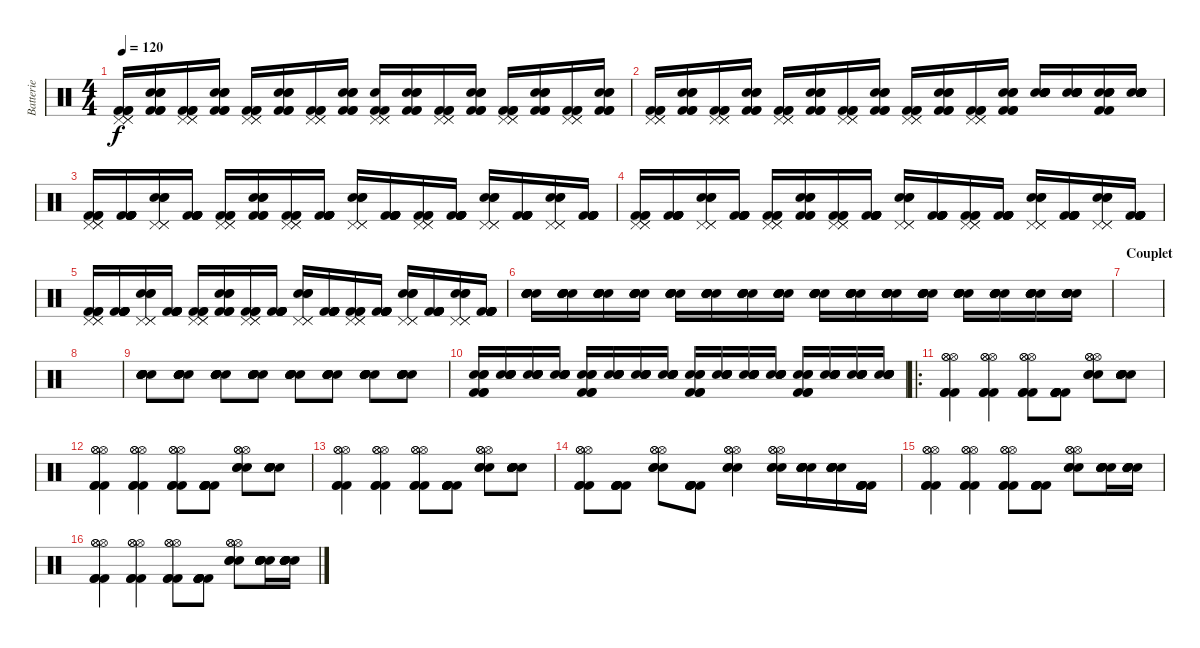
\track ("Batterie" "Batterie") {instrument percussion}
\staff {score}
\articulation defaults
\ts (4 4)
\tempo 120
\clef neutral
\ks c
("Pedal Hi-Hat (hit)" "Pedal Hi-Hat (hit)" "Pedal Hi-Hat (hit)" "Kick (hit) 2" "Kick (hit) 2" "Kick (hit) 2").16{dy f} ("Kick (hit) 2" "Kick (hit) 2" "Kick (hit) 2" "Snare (hit) 2" "Snare (hit) 2" "Snare (hit) 2").16 ("Pedal Hi-Hat (hit)" "Pedal Hi-Hat (hit)" "Pedal Hi-Hat (hit)" "Kick (hit) 2" "Kick (hit) 2" "Kick (hit) 2").16 ("Kick (hit) 2" "Kick (hit) 2" "Kick (hit) 2" "Snare (hit) 2" "Snare (hit) 2" "Snare (hit) 2").16 ("Pedal Hi-Hat (hit)" "Pedal Hi-Hat (hit)" "Pedal Hi-Hat (hit)" "Kick (hit) 2" "Kick (hit) 2" "Kick (hit) 2").16 ("Kick (hit) 2" "Kick (hit) 2" "Kick (hit) 2" "Snare (hit) 2" "Snare (hit) 2" "Snare (hit) 2").16 ("Pedal Hi-Hat (hit)" "Pedal Hi-Hat (hit)" "Pedal Hi-Hat (hit)" "Kick (hit) 2" "Kick (hit) 2" "Kick (hit) 2").16 ("Kick (hit) 2" "Kick (hit) 2" "Kick (hit) 2" "Snare (hit) 2" "Snare (hit) 2" "Snare (hit) 2").16 ("Pedal Hi-Hat (hit)" "Pedal Hi-Hat (hit)" "Pedal Hi-Hat (hit)" "Snare (hit)" "Kick (hit) 2" "Kick (hit) 2").16 ("Kick (hit) 2" "Kick (hit) 2" "Kick (hit) 2" "Snare (hit) 2" "Snare (hit) 2" "Snare (hit) 2").16 ("Pedal Hi-Hat (hit)" "Pedal Hi-Hat (hit)" "Pedal Hi-Hat (hit)" "Kick (hit) 2" "Kick (hit) 2" "Kick (hit) 2").16 ("Kick (hit) 2" "Kick (hit) 2" "Kick (hit) 2" "Snare (hit) 2" "Snare (hit) 2" "Snare (hit) 2").16 ("Pedal Hi-Hat (hit)" "Pedal Hi-Hat (hit)" "Pedal Hi-Hat (hit)" "Kick (hit) 2" "Kick (hit) 2" "Kick (hit) 2").16 ("Kick (hit) 2" "Kick (hit) 2" "Kick (hit) 2" "Snare (hit) 2" "Snare (hit) 2" "Snare (hit) 2").16 ("Pedal Hi-Hat (hit)" "Pedal Hi-Hat (hit)" "Pedal Hi-Hat (hit)" "Kick (hit) 2" "Kick (hit) 2" "Kick (hit) 2").16 ("Kick (hit) 2" "Kick (hit) 2" "Kick (hit) 2" "Snare (hit) 2" "Snare (hit) 2" "Snare (hit) 2").16 |
("Pedal Hi-Hat (hit)" "Pedal Hi-Hat (hit)" "Pedal Hi-Hat (hit)" "Kick (hit) 2" "Kick (hit) 2" "Kick (hit) 2").16 ("Kick (hit) 2" "Kick (hit) 2" "Kick (hit) 2" "Snare (hit) 2" "Snare (hit) 2" "Snare (hit) 2").16 ("Pedal Hi-Hat (hit)" "Pedal Hi-Hat (hit)" "Pedal Hi-Hat (hit)" "Kick (hit) 2" "Kick (hit) 2" "Kick (hit) 2").16 ("Kick (hit) 2" "Kick (hit) 2" "Kick (hit) 2" "Snare (hit) 2" "Snare (hit) 2" "Snare (hit) 2").16 ("Pedal Hi-Hat (hit)" "Pedal Hi-Hat (hit)" "Pedal Hi-Hat (hit)" "Kick (hit) 2" "Kick (hit) 2" "Kick (hit) 2").16 ("Kick (hit) 2" "Kick (hit) 2" "Kick (hit) 2" "Snare (hit) 2" "Snare (hit) 2" "Snare (hit) 2").16 ("Pedal Hi-Hat (hit)" "Pedal Hi-Hat (hit)" "Pedal Hi-Hat (hit)" "Kick (hit) 2" "Kick (hit) 2" "Kick (hit) 2").16 ("Kick (hit) 2" "Kick (hit) 2" "Kick (hit) 2" "Snare (hit) 2" "Snare (hit) 2" "Snare (hit) 2").16 ("Pedal Hi-Hat (hit)" "Pedal Hi-Hat (hit)" "Pedal Hi-Hat (hit)" "Kick (hit) 2" "Kick (hit) 2" "Kick (hit) 2").16 ("Kick (hit) 2" "Kick (hit) 2" "Kick (hit) 2" "Snare (hit) 2" "Snare (hit) 2" "Snare (hit) 2").16 ("Pedal Hi-Hat (hit)" "Pedal Hi-Hat (hit)" "Pedal Hi-Hat (hit)" "Kick (hit) 2" "Kick (hit) 2" "Kick (hit) 2").16 ("Kick (hit) 2" "Kick (hit) 2" "Kick (hit) 2" "Snare (hit) 2" "Snare (hit) 2" "Snare (hit) 2").16 ("Snare (hit) 2" "Snare (hit) 2" "Snare (hit) 2" "Snare (hit) 2" "Snare (hit) 2" "Snare (hit) 2").16 ("Snare (hit) 2" "Snare (hit) 2" "Snare (hit) 2" "Snare (hit) 2" "Snare (hit) 2" "Snare (hit) 2").16 ("Snare (hit) 2" "Snare (hit) 2" "Snare (hit) 2" "Snare (hit) 2" "Kick (hit) 2" "Kick (hit) 2").16 ("Snare (hit) 2" "Snare (hit) 2" "Snare (hit) 2" "Snare (hit) 2" "Snare (hit) 2" "Snare (hit) 2").16 |
("Pedal Hi-Hat (hit)" "Pedal Hi-Hat (hit)" "Pedal Hi-Hat (hit)" "Kick (hit) 2" "Kick (hit) 2" "Kick (hit) 2").16 ("Kick (hit) 2" "Kick (hit) 2" "Kick (hit) 2" "Kick (hit) 2" "Kick (hit) 2" "Kick (hit) 2").16 ("Pedal Hi-Hat (hit)" "Pedal Hi-Hat (hit)" "Pedal Hi-Hat (hit)" "Snare (hit) 2" "Snare (hit) 2" "Snare (hit) 2").16 ("Kick (hit) 2" "Kick (hit) 2" "Kick (hit) 2" "Kick (hit) 2" "Kick (hit) 2" "Kick (hit) 2").16 ("Pedal Hi-Hat (hit)" "Pedal Hi-Hat (hit)" "Pedal Hi-Hat (hit)" "Kick (hit) 2" "Kick (hit) 2" "Kick (hit) 2").16 ("Kick (hit) 2" "Kick (hit) 2" "Kick (hit) 2" "Snare (hit) 2" "Snare (hit) 2" "Snare (hit) 2").16 ("Pedal Hi-Hat (hit)" "Pedal Hi-Hat (hit)" "Pedal Hi-Hat (hit)" "Kick (hit) 2" "Kick (hit) 2" "Kick (hit) 2").16 ("Kick (hit) 2" "Kick (hit) 2" "Kick (hit) 2" "Kick (hit) 2" "Kick (hit) 2" "Kick (hit) 2").16 ("Pedal Hi-Hat (hit)" "Pedal Hi-Hat (hit)" "Pedal Hi-Hat (hit)" "Snare (hit) 2" "Snare (hit) 2" "Snare (hit) 2").16 ("Kick (hit) 2" "Kick (hit) 2" "Kick (hit) 2" "Kick (hit) 2" "Kick (hit) 2" "Kick (hit) 2").16 ("Pedal Hi-Hat (hit)" "Pedal Hi-Hat (hit)" "Pedal Hi-Hat (hit)" "Kick (hit) 2" "Kick (hit) 2" "Kick (hit) 2").16 ("Kick (hit) 2" "Kick (hit) 2" "Kick (hit) 2" "Kick (hit) 2" "Kick (hit) 2" "Kick (hit) 2").16 ("Pedal Hi-Hat (hit)" "Pedal Hi-Hat (hit)" "Pedal Hi-Hat (hit)" "Snare (hit) 2" "Snare (hit) 2" "Snare (hit) 2").16 ("Kick (hit) 2" "Kick (hit) 2" "Kick (hit) 2" "Kick (hit) 2" "Kick (hit) 2" "Kick (hit) 2").16 ("Pedal Hi-Hat (hit)" "Pedal Hi-Hat (hit)" "Pedal Hi-Hat (hit)" "Snare (hit) 2" "Snare (hit) 2" "Snare (hit) 2").16 ("Kick (hit) 2" "Kick (hit) 2" "Kick (hit) 2" "Kick (hit) 2" "Kick (hit) 2" "Kick (hit) 2").16 |
("Pedal Hi-Hat (hit)" "Pedal Hi-Hat (hit)" "Pedal Hi-Hat (hit)" "Kick (hit) 2" "Kick (hit) 2" "Kick (hit) 2").16 ("Kick (hit) 2" "Kick (hit) 2" "Kick (hit) 2" "Kick (hit) 2" "Kick (hit) 2" "Kick (hit) 2").16 ("Pedal Hi-Hat (hit)" "Pedal Hi-Hat (hit)" "Pedal Hi-Hat (hit)" "Snare (hit) 2" "Snare (hit) 2" "Snare (hit) 2").16 ("Kick (hit) 2" "Kick (hit) 2" "Kick (hit) 2" "Kick (hit) 2" "Kick (hit) 2" "Kick (hit) 2").16 ("Pedal Hi-Hat (hit)" "Pedal Hi-Hat (hit)" "Pedal Hi-Hat (hit)" "Kick (hit) 2" "Kick (hit) 2" "Kick (hit) 2").16 ("Kick (hit) 2" "Kick (hit) 2" "Kick (hit) 2" "Snare (hit) 2" "Snare (hit) 2" "Snare (hit) 2").16 ("Pedal Hi-Hat (hit)" "Pedal Hi-Hat (hit)" "Pedal Hi-Hat (hit)" "Kick (hit) 2" "Kick (hit) 2" "Kick (hit) 2").16 ("Kick (hit) 2" "Kick (hit) 2" "Kick (hit) 2" "Kick (hit) 2" "Kick (hit) 2" "Kick (hit) 2").16 ("Pedal Hi-Hat (hit)" "Pedal Hi-Hat (hit)" "Pedal Hi-Hat (hit)" "Snare (hit) 2" "Snare (hit) 2" "Snare (hit) 2").16 ("Kick (hit) 2" "Kick (hit) 2" "Kick (hit) 2" "Kick (hit) 2" "Kick (hit) 2" "Kick (hit) 2").16 ("Pedal Hi-Hat (hit)" "Pedal Hi-Hat (hit)" "Pedal Hi-Hat (hit)" "Kick (hit) 2" "Kick (hit) 2" "Kick (hit) 2").16 ("Kick (hit) 2" "Kick (hit) 2" "Kick (hit) 2" "Kick (hit) 2" "Kick (hit) 2" "Kick (hit) 2").16 ("Pedal Hi-Hat (hit)" "Pedal Hi-Hat (hit)" "Pedal Hi-Hat (hit)" "Snare (hit) 2" "Snare (hit) 2" "Snare (hit) 2").16 ("Kick (hit) 2" "Kick (hit) 2" "Kick (hit) 2" "Kick (hit) 2" "Kick (hit) 2" "Kick (hit) 2").16 ("Pedal Hi-Hat (hit)" "Pedal Hi-Hat (hit)" "Pedal Hi-Hat (hit)" "Snare (hit) 2" "Snare (hit) 2" "Snare (hit) 2").16 ("Kick (hit) 2" "Kick (hit) 2" "Kick (hit) 2" "Kick (hit) 2" "Kick (hit) 2" "Kick (hit) 2").16 |
("Pedal Hi-Hat (hit)" "Pedal Hi-Hat (hit)" "Pedal Hi-Hat (hit)" "Kick (hit) 2" "Kick (hit) 2" "Kick (hit) 2").16 ("Kick (hit) 2" "Kick (hit) 2" "Kick (hit) 2" "Kick (hit) 2" "Kick (hit) 2" "Kick (hit) 2").16 ("Pedal Hi-Hat (hit)" "Pedal Hi-Hat (hit)" "Pedal Hi-Hat (hit)" "Snare (hit) 2" "Snare (hit) 2" "Snare (hit) 2").16 ("Kick (hit) 2" "Kick (hit) 2" "Kick (hit) 2" "Kick (hit) 2" "Kick (hit) 2" "Kick (hit) 2").16 ("Pedal Hi-Hat (hit)" "Pedal Hi-Hat (hit)" "Pedal Hi-Hat (hit)" "Kick (hit) 2" "Kick (hit) 2" "Kick (hit) 2").16 ("Kick (hit) 2" "Kick (hit) 2" "Kick (hit) 2" "Snare (hit) 2" "Snare (hit) 2" "Snare (hit) 2").16 ("Pedal Hi-Hat (hit)" "Pedal Hi-Hat (hit)" "Pedal Hi-Hat (hit)" "Kick (hit) 2" "Kick (hit) 2" "Kick (hit) 2").16 ("Kick (hit) 2" "Kick (hit) 2" "Kick (hit) 2" "Kick (hit) 2" "Kick (hit) 2" "Kick (hit) 2").16 ("Pedal Hi-Hat (hit)" "Pedal Hi-Hat (hit)" "Pedal Hi-Hat (hit)" "Snare (hit) 2" "Snare (hit) 2" "Snare (hit) 2").16 ("Kick (hit) 2" "Kick (hit) 2" "Kick (hit) 2" "Kick (hit) 2" "Kick (hit) 2" "Kick (hit) 2").16 ("Pedal Hi-Hat (hit)" "Pedal Hi-Hat (hit)" "Pedal Hi-Hat (hit)" "Kick (hit) 2" "Kick (hit) 2" "Kick (hit) 2").16 ("Kick (hit) 2" "Kick (hit) 2" "Kick (hit) 2" "Kick (hit) 2" "Kick (hit) 2" "Kick (hit) 2").16 ("Pedal Hi-Hat (hit)" "Pedal Hi-Hat (hit)" "Pedal Hi-Hat (hit)" "Snare (hit) 2" "Snare (hit) 2" "Snare (hit) 2").16 ("Kick (hit) 2" "Kick (hit) 2" "Kick (hit) 2" "Kick (hit) 2" "Kick (hit) 2" "Kick (hit) 2").16 ("Pedal Hi-Hat (hit)" "Pedal Hi-Hat (hit)" "Pedal Hi-Hat (hit)" "Snare (hit) 2" "Snare (hit) 2" "Snare (hit) 2").16 ("Kick (hit) 2" "Kick (hit) 2" "Kick (hit) 2" "Kick (hit) 2" "Kick (hit) 2" "Kick (hit) 2").16 |
("Snare (hit) 2" "Snare (hit) 2" "Snare (hit) 2" "Snare (hit) 2" "Snare (hit) 2" "Snare (hit) 2").16 ("Snare (hit) 2" "Snare (hit) 2" "Snare (hit) 2" "Snare (hit) 2" "Snare (hit) 2" "Snare (hit) 2").16 ("Snare (hit) 2" "Snare (hit) 2" "Snare (hit) 2" "Snare (hit) 2" "Snare (hit) 2" "Snare (hit) 2").16 ("Snare (hit) 2" "Snare (hit) 2" "Snare (hit) 2" "Snare (hit) 2" "Snare (hit) 2" "Snare (hit) 2").16 ("Snare (hit) 2" "Snare (hit) 2" "Snare (hit) 2" "Snare (hit) 2" "Snare (hit) 2" "Snare (hit) 2").16 ("Snare (hit) 2" "Snare (hit) 2" "Snare (hit) 2" "Snare (hit) 2" "Snare (hit) 2" "Snare (hit) 2").16 ("Snare (hit) 2" "Snare (hit) 2" "Snare (hit) 2" "Snare (hit) 2" "Snare (hit) 2" "Snare (hit) 2").16 ("Snare (hit) 2" "Snare (hit) 2" "Snare (hit) 2" "Snare (hit) 2" "Snare (hit) 2" "Snare (hit) 2").16 ("Snare (hit) 2" "Snare (hit) 2" "Snare (hit) 2" "Snare (hit) 2" "Snare (hit) 2" "Snare (hit) 2").16 ("Snare (hit) 2" "Snare (hit) 2" "Snare (hit) 2" "Snare (hit) 2" "Snare (hit) 2" "Snare (hit) 2").16 ("Snare (hit) 2" "Snare (hit) 2" "Snare (hit) 2" "Snare (hit) 2" "Snare (hit) 2" "Snare (hit) 2").16 ("Snare (hit) 2" "Snare (hit) 2" "Snare (hit) 2" "Snare (hit) 2" "Snare (hit) 2" "Snare (hit) 2").16 ("Snare (hit) 2" "Snare (hit) 2" "Snare (hit) 2" "Snare (hit) 2" "Snare (hit) 2" "Snare (hit) 2").16 ("Snare (hit) 2" "Snare (hit) 2" "Snare (hit) 2" "Snare (hit) 2" "Snare (hit) 2" "Snare (hit) 2").16 ("Snare (hit) 2" "Snare (hit) 2" "Snare (hit) 2" "Snare (hit) 2" "Snare (hit) 2" "Snare (hit) 2").16 ("Snare (hit) 2" "Snare (hit) 2" "Snare (hit) 2" "Snare (hit) 2" "Snare (hit) 2" "Snare (hit) 2").16 |
\section ("" "Couplet")
|
|
("Snare (hit) 2" "Snare (hit) 2" "Snare (hit) 2" "Snare (hit) 2" "Snare (hit) 2" "Snare (hit) 2").8 ("Snare (hit) 2" "Snare (hit) 2" "Snare (hit) 2" "Snare (hit) 2" "Snare (hit) 2" "Snare (hit) 2").8 ("Snare (hit) 2" "Snare (hit) 2" "Snare (hit) 2" "Snare (hit) 2" "Snare (hit) 2" "Snare (hit) 2").8 ("Snare (hit) 2" "Snare (hit) 2" "Snare (hit) 2" "Snare (hit) 2" "Snare (hit) 2" "Snare (hit) 2").8 ("Snare (hit) 2" "Snare (hit) 2" "Snare (hit) 2" "Snare (hit) 2" "Snare (hit) 2" "Snare (hit) 2").8 ("Snare (hit) 2" "Snare (hit) 2" "Snare (hit) 2" "Snare (hit) 2" "Snare (hit) 2" "Snare (hit) 2").8 ("Snare (hit) 2" "Snare (hit) 2" "Snare (hit) 2" "Snare (hit) 2" "Snare (hit) 2" "Snare (hit) 2").8 ("Snare (hit) 2" "Snare (hit) 2" "Snare (hit) 2" "Snare (hit) 2" "Snare (hit) 2" "Snare (hit) 2").8 |
("Kick (hit) 2" "Kick (hit) 2" "Kick (hit) 2" "Snare (hit) 2" "Snare (hit) 2" "Snare (hit) 2").16 ("Snare (hit) 2" "Snare (hit) 2" "Snare (hit) 2" "Snare (hit) 2" "Snare (hit) 2" "Snare (hit) 2").16 ("Snare (hit) 2" "Snare (hit) 2" "Snare (hit) 2" "Snare (hit) 2" "Snare (hit) 2" "Snare (hit) 2").16 ("Snare (hit) 2" "Snare (hit) 2" "Snare (hit) 2" "Snare (hit) 2" "Snare (hit) 2" "Snare (hit) 2").16 ("Kick (hit) 2" "Kick (hit) 2" "Kick (hit) 2" "Snare (hit) 2" "Snare (hit) 2" "Snare (hit) 2").16 ("Snare (hit) 2" "Snare (hit) 2" "Snare (hit) 2" "Snare (hit) 2" "Snare (hit) 2" "Snare (hit) 2").16 ("Snare (hit) 2" "Snare (hit) 2" "Snare (hit) 2" "Snare (hit) 2" "Snare (hit) 2" "Snare (hit) 2").16 ("Snare (hit) 2" "Snare (hit) 2" "Snare (hit) 2" "Snare (hit) 2" "Snare (hit) 2" "Snare (hit) 2").16 ("Kick (hit) 2" "Kick (hit) 2" "Kick (hit) 2" "Snare (hit) 2" "Snare (hit) 2" "Snare (hit) 2").16 ("Snare (hit) 2" "Snare (hit) 2" "Snare (hit) 2" "Snare (hit) 2" "Snare (hit) 2" "Snare (hit) 2").16 ("Snare (hit) 2" "Snare (hit) 2" "Snare (hit) 2" "Snare (hit) 2" "Snare (hit) 2" "Snare (hit) 2").16 ("Snare (hit) 2" "Snare (hit) 2" "Snare (hit) 2" "Snare (hit) 2" "Snare (hit) 2" "Snare (hit) 2").16 ("Kick (hit) 2" "Kick (hit) 2" "Kick (hit) 2" "Snare (hit) 2" "Snare (hit) 2" "Snare (hit) 2").16 ("Snare (hit) 2" "Snare (hit) 2" "Snare (hit) 2" "Snare (hit) 2" "Snare (hit) 2" "Snare (hit) 2").16 ("Snare (hit) 2" "Snare (hit) 2" "Snare (hit) 2" "Snare (hit) 2" "Snare (hit) 2" "Snare (hit) 2").16 ("Snare (hit) 2" "Snare (hit) 2" "Snare (hit) 2" "Snare (hit) 2" "Snare (hit) 2" "Snare (hit) 2").16 |
\ro
("Hi-Hat (open)" "Hi-Hat (open)" "Hi-Hat (open)" "Kick (hit) 2" "Kick (hit) 2" "Kick (hit) 2").4 ("Hi-Hat (open)" "Hi-Hat (open)" "Hi-Hat (open)" "Kick (hit) 2" "Kick (hit) 2" "Kick (hit) 2").4 ("Hi-Hat (open)" "Hi-Hat (open)" "Hi-Hat (open)" "Kick (hit) 2" "Kick (hit) 2" "Kick (hit) 2").8 ("Kick (hit) 2" "Kick (hit) 2" "Kick (hit) 2" "Kick (hit) 2" "Kick (hit) 2" "Kick (hit) 2").8 ("Hi-Hat (open)" "Hi-Hat (open)" "Hi-Hat (open)" "Snare (hit) 2" "Snare (hit) 2" "Snare (hit) 2").8 ("Snare (hit) 2" "Snare (hit) 2" "Snare (hit) 2" "Snare (hit) 2" "Snare (hit) 2" "Snare (hit) 2").8 |
("Hi-Hat (open)" "Hi-Hat (open)" "Hi-Hat (open)" "Kick (hit) 2" "Kick (hit) 2" "Kick (hit) 2").4 ("Hi-Hat (open)" "Hi-Hat (open)" "Hi-Hat (open)" "Kick (hit) 2" "Kick (hit) 2" "Kick (hit) 2").4 ("Hi-Hat (open)" "Hi-Hat (open)" "Hi-Hat (open)" "Kick (hit) 2" "Kick (hit) 2" "Kick (hit) 2").8 ("Kick (hit) 2" "Kick (hit) 2" "Kick (hit) 2" "Kick (hit) 2" "Kick (hit) 2" "Kick (hit) 2").8 ("Hi-Hat (open)" "Hi-Hat (open)" "Hi-Hat (open)" "Snare (hit) 2" "Snare (hit) 2" "Snare (hit) 2").8 ("Snare (hit) 2" "Snare (hit) 2" "Snare (hit) 2" "Snare (hit) 2" "Snare (hit) 2" "Snare (hit) 2").8 |
("Hi-Hat (open)" "Hi-Hat (open)" "Hi-Hat (open)" "Kick (hit) 2" "Kick (hit) 2" "Kick (hit) 2").4 ("Hi-Hat (open)" "Hi-Hat (open)" "Hi-Hat (open)" "Kick (hit) 2" "Kick (hit) 2" "Kick (hit) 2").4 ("Hi-Hat (open)" "Hi-Hat (open)" "Hi-Hat (open)" "Kick (hit) 2" "Kick (hit) 2" "Kick (hit) 2").8 ("Kick (hit) 2" "Kick (hit) 2" "Kick (hit) 2" "Kick (hit) 2" "Kick (hit) 2" "Kick (hit) 2").8 ("Hi-Hat (open)" "Hi-Hat (open)" "Hi-Hat (open)" "Snare (hit) 2" "Snare (hit) 2" "Snare (hit) 2").8 ("Snare (hit) 2" "Snare (hit) 2" "Snare (hit) 2" "Snare (hit) 2" "Snare (hit) 2" "Snare (hit) 2").8 |
("Hi-Hat (open)" "Hi-Hat (open)" "Hi-Hat (open)" "Kick (hit) 2" "Kick (hit) 2" "Kick (hit) 2").8 ("Kick (hit) 2" "Kick (hit) 2" "Kick (hit) 2" "Kick (hit) 2" "Kick (hit) 2" "Kick (hit) 2").8 ("Snare (hit) 2" "Snare (hit) 2" "Snare (hit) 2" "Hi-Hat (open)" "Hi-Hat (open)" "Hi-Hat (open)").8 ("Kick (hit) 2" "Kick (hit) 2" "Kick (hit) 2" "Kick (hit) 2" "Kick (hit) 2" "Kick (hit) 2").8 ("Snare (hit) 2" "Snare (hit) 2" "Hi-Hat (open)" "Hi-Hat (open)" "Snare (hit) 2" "Hi-Hat (open)").4 ("Hi-Hat (open)" "Hi-Hat (open)" "Hi-Hat (open)" "Snare (hit) 2" "Snare (hit) 2" "Snare (hit) 2").16 ("Snare (hit) 2" "Snare (hit) 2" "Snare (hit) 2" "Snare (hit) 2" "Snare (hit) 2" "Snare (hit) 2").16 ("Snare (hit) 2" "Snare (hit) 2" "Snare (hit) 2" "Snare (hit) 2" "Snare (hit) 2" "Snare (hit) 2").16 ("Kick (hit) 2" "Kick (hit) 2" "Kick (hit) 2" "Kick (hit) 2" "Kick (hit) 2" "Kick (hit) 2").16 |
("Hi-Hat (open)" "Hi-Hat (open)" "Hi-Hat (open)" "Kick (hit) 2" "Kick (hit) 2" "Kick (hit) 2").4 ("Hi-Hat (open)" "Hi-Hat (open)" "Hi-Hat (open)" "Kick (hit) 2" "Kick (hit) 2" "Kick (hit) 2").4 ("Hi-Hat (open)" "Hi-Hat (open)" "Hi-Hat (open)" "Kick (hit) 2" "Kick (hit) 2" "Kick (hit) 2").8 ("Kick (hit) 2" "Kick (hit) 2" "Kick (hit) 2" "Kick (hit) 2" "Kick (hit) 2" "Kick (hit) 2").8 ("Hi-Hat (open)" "Hi-Hat (open)" "Hi-Hat (open)" "Snare (hit) 2" "Snare (hit) 2" "Snare (hit) 2").8 ("Snare (hit) 2" "Snare (hit) 2" "Snare (hit) 2" "Snare (hit) 2" "Snare (hit) 2" "Snare (hit) 2").16 ("Snare (hit) 2" "Snare (hit) 2" "Snare (hit) 2" "Snare (hit) 2" "Snare (hit) 2" "Snare (hit) 2").16 |
("Hi-Hat (open)" "Hi-Hat (open)" "Hi-Hat (open)" "Kick (hit) 2" "Kick (hit) 2" "Kick (hit) 2").4 ("Hi-Hat (open)" "Hi-Hat (open)" "Hi-Hat (open)" "Kick (hit) 2" "Kick (hit) 2" "Kick (hit) 2").4 ("Hi-Hat (open)" "Hi-Hat (open)" "Hi-Hat (open)" "Kick (hit) 2" "Kick (hit) 2" "Kick (hit) 2").8 ("Kick (hit) 2" "Kick (hit) 2" "Kick (hit) 2" "Kick (hit) 2" "Kick (hit) 2" "Kick (hit) 2").8 ("Hi-Hat (open)" "Hi-Hat (open)" "Hi-Hat (open)" "Snare (hit) 2" "Snare (hit) 2" "Snare (hit) 2").8 ("Snare (hit) 2" "Snare (hit) 2" "Snare (hit) 2" "Snare (hit) 2" "Snare (hit) 2" "Snare (hit) 2").16 ("Snare (hit) 2" "Snare (hit) 2" "Snare (hit) 2" "Snare (hit) 2" "Snare (hit) 2" "Snare (hit) 2").16
